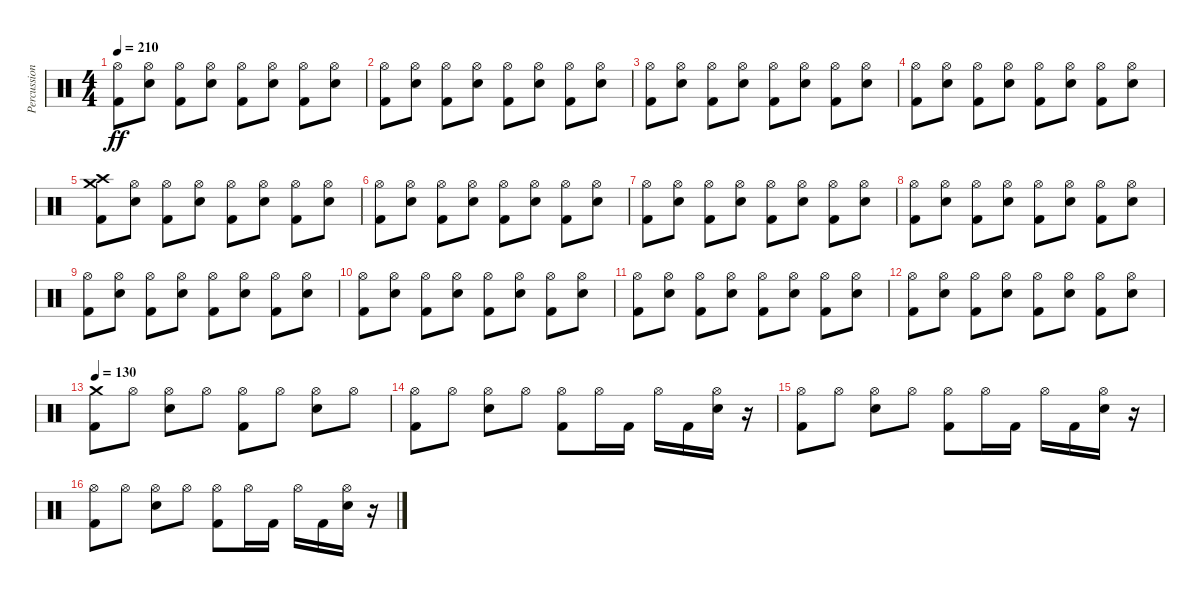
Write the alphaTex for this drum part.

\track ("Percussion" "Percussion") {instrument percussion}
\staff {score}
\articulation defaults
\ts (4 4)
\tempo 210
\clef neutral
\ks c
("Kick (hit) 2" "Hi-Hat (open)").8{dy ff} ("Electric Snare (hit)" "Hi-Hat (open)").8 ("Kick (hit) 2" "Hi-Hat (open)").8 ("Electric Snare (hit)" "Hi-Hat (open)").8 ("Kick (hit) 2" "Hi-Hat (open)").8 ("Electric Snare (hit)" "Hi-Hat (open)").8 ("Kick (hit) 2" "Hi-Hat (open)").8 ("Electric Snare (hit)" "Hi-Hat (open)").8 |
("Kick (hit) 2" "Hi-Hat (open)").8 ("Electric Snare (hit)" "Hi-Hat (open)").8 ("Kick (hit) 2" "Hi-Hat (open)").8 ("Electric Snare (hit)" "Hi-Hat (open)").8 ("Kick (hit) 2" "Hi-Hat (open)").8 ("Electric Snare (hit)" "Hi-Hat (open)").8 ("Kick (hit) 2" "Hi-Hat (open)").8 ("Electric Snare (hit)" "Hi-Hat (open)").8 |
("Kick (hit) 2" "Hi-Hat (open)").8 ("Electric Snare (hit)" "Hi-Hat (open)").8 ("Kick (hit) 2" "Hi-Hat (open)").8 ("Electric Snare (hit)" "Hi-Hat (open)").8 ("Kick (hit) 2" "Hi-Hat (open)").8 ("Electric Snare (hit)" "Hi-Hat (open)").8 ("Kick (hit) 2" "Hi-Hat (open)").8 ("Electric Snare (hit)" "Hi-Hat (open)").8 |
("Kick (hit) 2" "Hi-Hat (open)").8 ("Electric Snare (hit)" "Hi-Hat (open)").8 ("Kick (hit) 2" "Hi-Hat (open)").8 ("Electric Snare (hit)" "Hi-Hat (open)").8 ("Kick (hit) 2" "Hi-Hat (open)").8 ("Electric Snare (hit)" "Hi-Hat (open)").8 ("Kick (hit) 2" "Hi-Hat (open)").8 ("Electric Snare (hit)" "Hi-Hat (open)").8 |
("Kick (hit) 2" "Crash medium (hit)" "Crash high (hit)").8 ("Electric Snare (hit)" "Hi-Hat (open)").8 ("Kick (hit) 2" "Hi-Hat (open)").8 ("Electric Snare (hit)" "Hi-Hat (open)").8 ("Kick (hit) 2" "Hi-Hat (open)").8 ("Electric Snare (hit)" "Hi-Hat (open)").8 ("Kick (hit) 2" "Hi-Hat (open)").8 ("Electric Snare (hit)" "Hi-Hat (open)").8 |
("Kick (hit) 2" "Hi-Hat (open)").8 ("Electric Snare (hit)" "Hi-Hat (open)").8 ("Kick (hit) 2" "Hi-Hat (open)").8 ("Electric Snare (hit)" "Hi-Hat (open)").8 ("Kick (hit) 2" "Hi-Hat (open)").8 ("Electric Snare (hit)" "Hi-Hat (open)").8 ("Kick (hit) 2" "Hi-Hat (open)").8 ("Electric Snare (hit)" "Hi-Hat (open)").8 |
("Kick (hit) 2" "Hi-Hat (open)").8 ("Electric Snare (hit)" "Hi-Hat (open)").8 ("Kick (hit) 2" "Hi-Hat (open)").8 ("Electric Snare (hit)" "Hi-Hat (open)").8 ("Kick (hit) 2" "Hi-Hat (open)").8 ("Electric Snare (hit)" "Hi-Hat (open)").8 ("Kick (hit) 2" "Hi-Hat (open)").8 ("Electric Snare (hit)" "Hi-Hat (open)").8 |
("Kick (hit) 2" "Hi-Hat (open)").8 ("Electric Snare (hit)" "Hi-Hat (open)").8 ("Kick (hit) 2" "Hi-Hat (open)").8 ("Electric Snare (hit)" "Hi-Hat (open)").8 ("Kick (hit) 2" "Hi-Hat (open)").8 ("Electric Snare (hit)" "Hi-Hat (open)").8 ("Kick (hit) 2" "Hi-Hat (open)").8 ("Electric Snare (hit)" "Hi-Hat (open)").8 |
("Kick (hit) 2" "Hi-Hat (open)").8 ("Electric Snare (hit)" "Hi-Hat (open)").8 ("Kick (hit) 2" "Hi-Hat (open)").8 ("Electric Snare (hit)" "Hi-Hat (open)").8 ("Kick (hit) 2" "Hi-Hat (open)").8 ("Electric Snare (hit)" "Hi-Hat (open)").8 ("Kick (hit) 2" "Hi-Hat (open)").8 ("Electric Snare (hit)" "Hi-Hat (open)").8 |
("Kick (hit) 2" "Hi-Hat (open)").8 ("Electric Snare (hit)" "Hi-Hat (open)").8 ("Kick (hit) 2" "Hi-Hat (open)").8 ("Electric Snare (hit)" "Hi-Hat (open)").8 ("Kick (hit) 2" "Hi-Hat (open)").8 ("Electric Snare (hit)" "Hi-Hat (open)").8 ("Kick (hit) 2" "Hi-Hat (open)").8 ("Electric Snare (hit)" "Hi-Hat (open)").8 |
("Kick (hit) 2" "Hi-Hat (open)").8 ("Electric Snare (hit)" "Hi-Hat (open)").8 ("Kick (hit) 2" "Hi-Hat (open)").8 ("Electric Snare (hit)" "Hi-Hat (open)").8 ("Kick (hit) 2" "Hi-Hat (open)").8 ("Electric Snare (hit)" "Hi-Hat (open)").8 ("Kick (hit) 2" "Hi-Hat (open)").8 ("Electric Snare (hit)" "Hi-Hat (open)").8 |
("Kick (hit) 2" "Hi-Hat (open)").8 ("Electric Snare (hit)" "Hi-Hat (open)").8 ("Kick (hit) 2" "Hi-Hat (open)").8 ("Electric Snare (hit)" "Hi-Hat (open)").8 ("Kick (hit) 2" "Hi-Hat (open)").8 ("Electric Snare (hit)" "Hi-Hat (open)").8 ("Kick (hit) 2" "Hi-Hat (open)").8 ("Electric Snare (hit)" "Hi-Hat (open)").8 |
\tempo 130
("Kick (hit) 2" "Crash medium (hit)").8 "Hi-Hat (open)".8 ("Electric Snare (hit)" "Hi-Hat (open)").8 "Hi-Hat (open)".8 ("Kick (hit) 2" "Hi-Hat (open)").8 "Hi-Hat (open)".8 ("Electric Snare (hit)" "Hi-Hat (open)").8 "Hi-Hat (open)".8 |
("Kick (hit) 2" "Hi-Hat (open)").8 "Hi-Hat (open)".8 ("Electric Snare (hit)" "Hi-Hat (open)").8 "Hi-Hat (open)".8 ("Kick (hit) 2" "Hi-Hat (open)").8 "Hi-Hat (open)".16 "Kick (hit) 2".16 "Hi-Hat (open)".16 "Kick (hit) 2".16 ("Electric Snare (hit)" "Hi-Hat (open)").16 r.16 |
("Kick (hit) 2" "Hi-Hat (open)").8 "Hi-Hat (open)".8 ("Electric Snare (hit)" "Hi-Hat (open)").8 "Hi-Hat (open)".8 ("Kick (hit) 2" "Hi-Hat (open)").8 "Hi-Hat (open)".16 "Kick (hit) 2".16 "Hi-Hat (open)".16 "Kick (hit) 2".16 ("Electric Snare (hit)" "Hi-Hat (open)").16 r.16 |
("Kick (hit) 2" "Hi-Hat (open)").8 "Hi-Hat (open)".8 ("Electric Snare (hit)" "Hi-Hat (open)").8 "Hi-Hat (open)".8 ("Kick (hit) 2" "Hi-Hat (open)").8 "Hi-Hat (open)".16 "Kick (hit) 2".16 "Hi-Hat (open)".16 "Kick (hit) 2".16 ("Electric Snare (hit)" "Hi-Hat (open)").16 r.16
